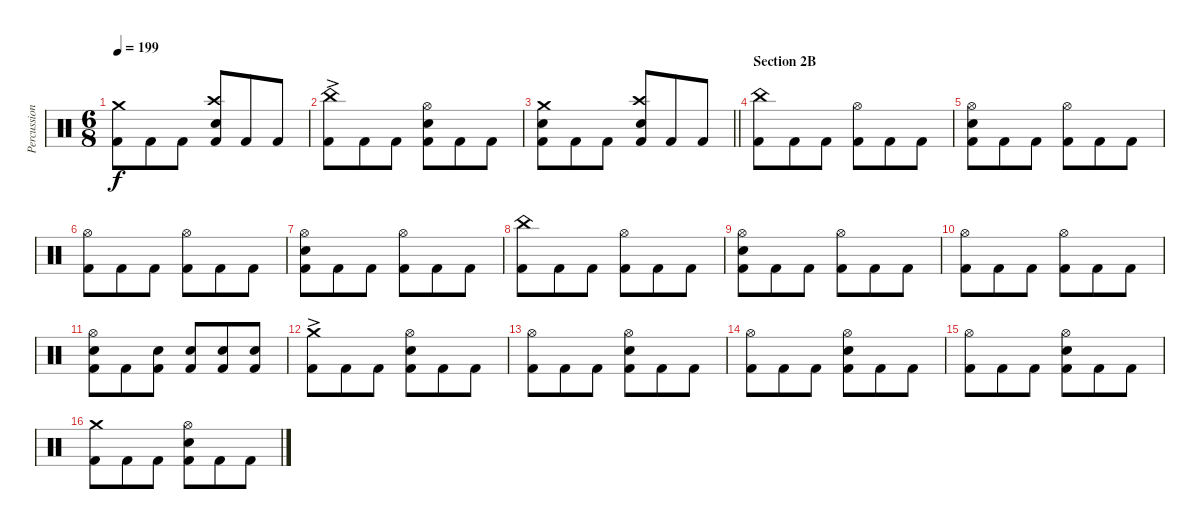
\track ("Percussion" "Percussion") {instrument percussion}
\staff {score}
\articulation defaults
\ts (6 8)
\tempo 199
\clef neutral
\ks c
("Crash medium (hit)" "Kick (hit) 2").8{dy f} "Kick (hit) 2".8 "Kick (hit) 2".8 ("Crash high (hit)" "Electric Snare (hit)" "Kick (hit) 2").8 "Kick (hit) 2".8 "Kick (hit) 2".8 |
("China (hit)"{ac} "Kick (hit) 2").8 "Kick (hit) 2".8 "Kick (hit) 2".8 ("Hi-Hat (open)" "Electric Snare (hit)" "Kick (hit) 2").8 "Kick (hit) 2".8 "Kick (hit) 2".8 |
\barLineRight lightlight
("Crash medium (hit)" "Electric Snare (hit)" "Kick (hit) 2").8 "Kick (hit) 2".8 "Kick (hit) 2".8 ("Crash high (hit)" "Electric Snare (hit)" "Kick (hit) 2").8 "Kick (hit) 2".8 "Kick (hit) 2".8 |
\section ("" "Section 2B")
("China (hit)" "Kick (hit) 2").8 "Kick (hit) 2".8 "Kick (hit) 2".8 ("Hi-Hat (open)" "Kick (hit) 2").8 "Kick (hit) 2".8 "Kick (hit) 2".8 |
("Hi-Hat (open)" "Electric Snare (hit)" "Kick (hit) 2").8 "Kick (hit) 2".8 "Kick (hit) 2".8 ("Hi-Hat (open)" "Kick (hit) 2").8 "Kick (hit) 2".8 "Kick (hit) 2".8 |
("Hi-Hat (open)" "Kick (hit) 2").8 "Kick (hit) 2".8 "Kick (hit) 2".8 ("Hi-Hat (open)" "Kick (hit) 2").8 "Kick (hit) 2".8 "Kick (hit) 2".8 |
("Hi-Hat (open)" "Electric Snare (hit)" "Kick (hit) 2").8 "Kick (hit) 2".8 "Kick (hit) 2".8 ("Hi-Hat (open)" "Kick (hit) 2").8 "Kick (hit) 2".8 "Kick (hit) 2".8 |
("China (hit)" "Kick (hit) 2").8 "Kick (hit) 2".8 "Kick (hit) 2".8 ("Hi-Hat (open)" "Kick (hit) 2").8 "Kick (hit) 2".8 "Kick (hit) 2".8 |
("Hi-Hat (open)" "Electric Snare (hit)" "Kick (hit) 2").8 "Kick (hit) 2".8 "Kick (hit) 2".8 ("Hi-Hat (open)" "Kick (hit) 2").8 "Kick (hit) 2".8 "Kick (hit) 2".8 |
("Hi-Hat (open)" "Kick (hit) 2").8 "Kick (hit) 2".8 "Kick (hit) 2".8 ("Hi-Hat (open)" "Kick (hit) 2").8 "Kick (hit) 2".8 "Kick (hit) 2".8 |
("Hi-Hat (open)" "Electric Snare (hit)" "Kick (hit) 2").8 "Kick (hit) 2".8 ("Electric Snare (hit)" "Kick (hit) 2").8 ("Electric Snare (hit)" "Kick (hit) 2").8 ("Electric Snare (hit)" "Kick (hit) 2").8 ("Electric Snare (hit)" "Kick (hit) 2").8 |
("Crash medium (hit)"{ac} "Kick (hit) 2").8 "Kick (hit) 2".8 "Kick (hit) 2".8 ("Hi-Hat (open)" "Electric Snare (hit)" "Kick (hit) 2").8 "Kick (hit) 2".8 "Kick (hit) 2".8 |
("Hi-Hat (open)" "Kick (hit) 2").8 "Kick (hit) 2".8 "Kick (hit) 2".8 ("Hi-Hat (open)" "Electric Snare (hit)" "Kick (hit) 2").8 "Kick (hit) 2".8 "Kick (hit) 2".8 |
("Hi-Hat (open)" "Kick (hit) 2").8 "Kick (hit) 2".8 "Kick (hit) 2".8 ("Hi-Hat (open)" "Electric Snare (hit)" "Kick (hit) 2").8 "Kick (hit) 2".8 "Kick (hit) 2".8 |
("Hi-Hat (open)" "Kick (hit) 2").8 "Kick (hit) 2".8 "Kick (hit) 2".8 ("Hi-Hat (open)" "Electric Snare (hit)" "Kick (hit) 2").8 "Kick (hit) 2".8 "Kick (hit) 2".8 |
("Crash medium (hit)" "Kick (hit) 2").8 "Kick (hit) 2".8 "Kick (hit) 2".8 ("Hi-Hat (open)" "Electric Snare (hit)" "Kick (hit) 2").8 "Kick (hit) 2".8 "Kick (hit) 2".8
